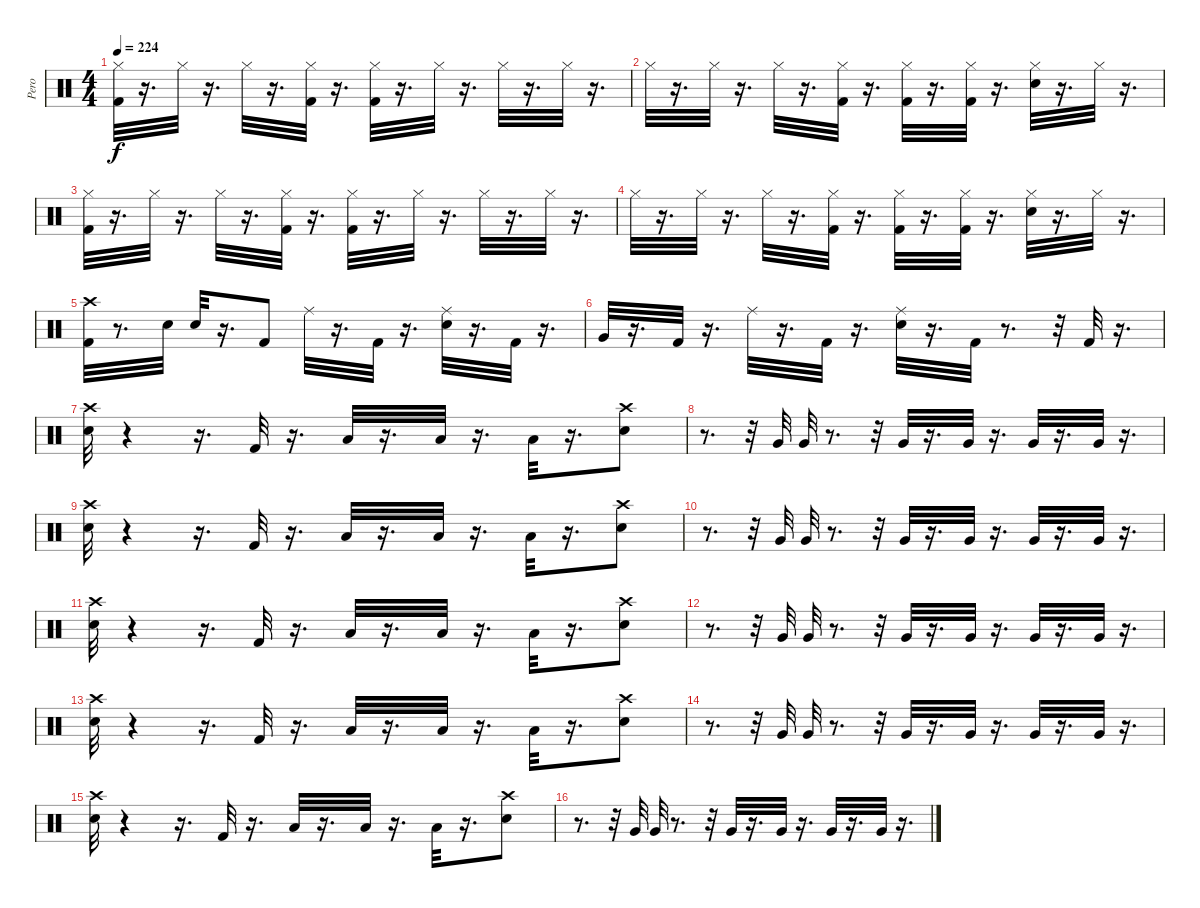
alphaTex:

\track ("Pero" "Pero") {instrument percussion}
\staff {score}
\articulation defaults
\ts (4 4)
\tempo 224
\clef neutral
\ks c
("Hi-Hat (closed)" "Kick (hit) 2").32{dy f} r.16{d} "Hi-Hat (closed)".32 r.16{d} "Hi-Hat (closed)".32 r.16{d} ("Hi-Hat (closed)" "Kick (hit) 2").32 r.16{d} ("Hi-Hat (closed)" "Kick (hit) 2").32 r.16{d} "Hi-Hat (closed)".32 r.16{d} "Hi-Hat (closed)".32 r.16{d} "Hi-Hat (closed)".32 r.16{d} |
"Hi-Hat (closed)".32 r.16{d} "Hi-Hat (closed)".32 r.16{d} "Hi-Hat (closed)".32 r.16{d} ("Hi-Hat (closed)" "Kick (hit) 2").32 r.16{d} ("Hi-Hat (closed)" "Kick (hit) 2").32 r.16{d} ("Hi-Hat (closed)" "Kick (hit) 2").32 r.16{d} ("Hi-Hat (closed)" "Snare (hit) 2").32 r.16{d} "Hi-Hat (closed)".32 r.16{d} |
("Hi-Hat (closed)" "Kick (hit) 2").32 r.16{d} "Hi-Hat (closed)".32 r.16{d} "Hi-Hat (closed)".32 r.16{d} ("Hi-Hat (closed)" "Kick (hit) 2").32 r.16{d} ("Hi-Hat (closed)" "Kick (hit) 2").32 r.16{d} "Hi-Hat (closed)".32 r.16{d} "Hi-Hat (closed)".32 r.16{d} "Hi-Hat (closed)".32 r.16{d} |
"Hi-Hat (closed)".32 r.16{d} "Hi-Hat (closed)".32 r.16{d} "Hi-Hat (closed)".32 r.16{d} ("Hi-Hat (closed)" "Kick (hit) 2").32 r.16{d} ("Hi-Hat (closed)" "Kick (hit) 2").32 r.16{d} ("Hi-Hat (closed)" "Kick (hit) 2").32 r.16{d} ("Hi-Hat (closed)" "Snare (hit) 2").32 r.16{d} "Hi-Hat (closed)".32 r.16{d} |
("Crash high (hit)" "Kick (hit) 2").32 r.8{d} "Snare (hit) 2".32 "Snare (hit) 2".32 r.16{d} "Kick (hit) 2".8 "Ride (middle)".32 r.16{d} "Kick (hit) 2".32 r.16{d} ("Ride (middle)" "Snare (hit) 2").32 r.16{d} "Kick (hit) 2".32 r.16{d} |
"Very Low Tom (hit)".32 r.16{d} "Kick (hit) 2".32 r.16{d} "Ride (middle)".32 r.16{d} "Kick (hit) 2".32 r.16{d} ("Ride (middle)" "Snare (hit) 2").32 r.16{d} "Kick (hit) 2".32 r.8{d} r.32 "Kick (hit) 2".32 r.16{d} |
("Crash high (hit)" "Snare (hit) 2").32 r.4 r.16{d} "Kick (hit) 2".32 r.16{d} "Low Tom (hit)".32 r.16{d} "Low Tom (hit)".32 r.16{d} "Low Tom (hit)".32 r.16{d} ("Crash high (hit)" "Snare (hit) 2").8 |
r.8{d} r.32 "Very Low Tom (hit)".32 "Very Low Tom (hit)".32 r.8{d} r.32 "Very Low Tom (hit)".32 r.16{d} "Very Low Tom (hit)".32 r.16{d} "Very Low Tom (hit)".32 r.16{d} "Very Low Tom (hit)".32 r.16{d} |
("Crash high (hit)" "Snare (hit) 2").32 r.4 r.16{d} "Kick (hit) 2".32 r.16{d} "Low Tom (hit)".32 r.16{d} "Low Tom (hit)".32 r.16{d} "Low Tom (hit)".32 r.16{d} ("Crash high (hit)" "Snare (hit) 2").8 |
r.8{d} r.32 "Very Low Tom (hit)".32 "Very Low Tom (hit)".32 r.8{d} r.32 "Very Low Tom (hit)".32 r.16{d} "Very Low Tom (hit)".32 r.16{d} "Very Low Tom (hit)".32 r.16{d} "Very Low Tom (hit)".32 r.16{d} |
("Crash high (hit)" "Snare (hit) 2").32 r.4 r.16{d} "Kick (hit) 2".32 r.16{d} "Low Tom (hit)".32 r.16{d} "Low Tom (hit)".32 r.16{d} "Low Tom (hit)".32 r.16{d} ("Crash high (hit)" "Snare (hit) 2").8 |
r.8{d} r.32 "Very Low Tom (hit)".32 "Very Low Tom (hit)".32 r.8{d} r.32 "Very Low Tom (hit)".32 r.16{d} "Very Low Tom (hit)".32 r.16{d} "Very Low Tom (hit)".32 r.16{d} "Very Low Tom (hit)".32 r.16{d} |
("Crash high (hit)" "Snare (hit) 2").32 r.4 r.16{d} "Kick (hit) 2".32 r.16{d} "Low Tom (hit)".32 r.16{d} "Low Tom (hit)".32 r.16{d} "Low Tom (hit)".32 r.16{d} ("Crash high (hit)" "Snare (hit) 2").8 |
r.8{d} r.32 "Very Low Tom (hit)".32 "Very Low Tom (hit)".32 r.8{d} r.32 "Very Low Tom (hit)".32 r.16{d} "Very Low Tom (hit)".32 r.16{d} "Very Low Tom (hit)".32 r.16{d} "Very Low Tom (hit)".32 r.16{d} |
("Crash high (hit)" "Snare (hit) 2").32 r.4 r.16{d} "Kick (hit) 2".32 r.16{d} "Low Tom (hit)".32 r.16{d} "Low Tom (hit)".32 r.16{d} "Low Tom (hit)".32 r.16{d} ("Crash high (hit)" "Snare (hit) 2").8 |
r.8{d} r.32 "Very Low Tom (hit)".32 "Very Low Tom (hit)".32 r.8{d} r.32 "Very Low Tom (hit)".32 r.16{d} "Very Low Tom (hit)".32 r.16{d} "Very Low Tom (hit)".32 r.16{d} "Very Low Tom (hit)".32 r.16{d}
